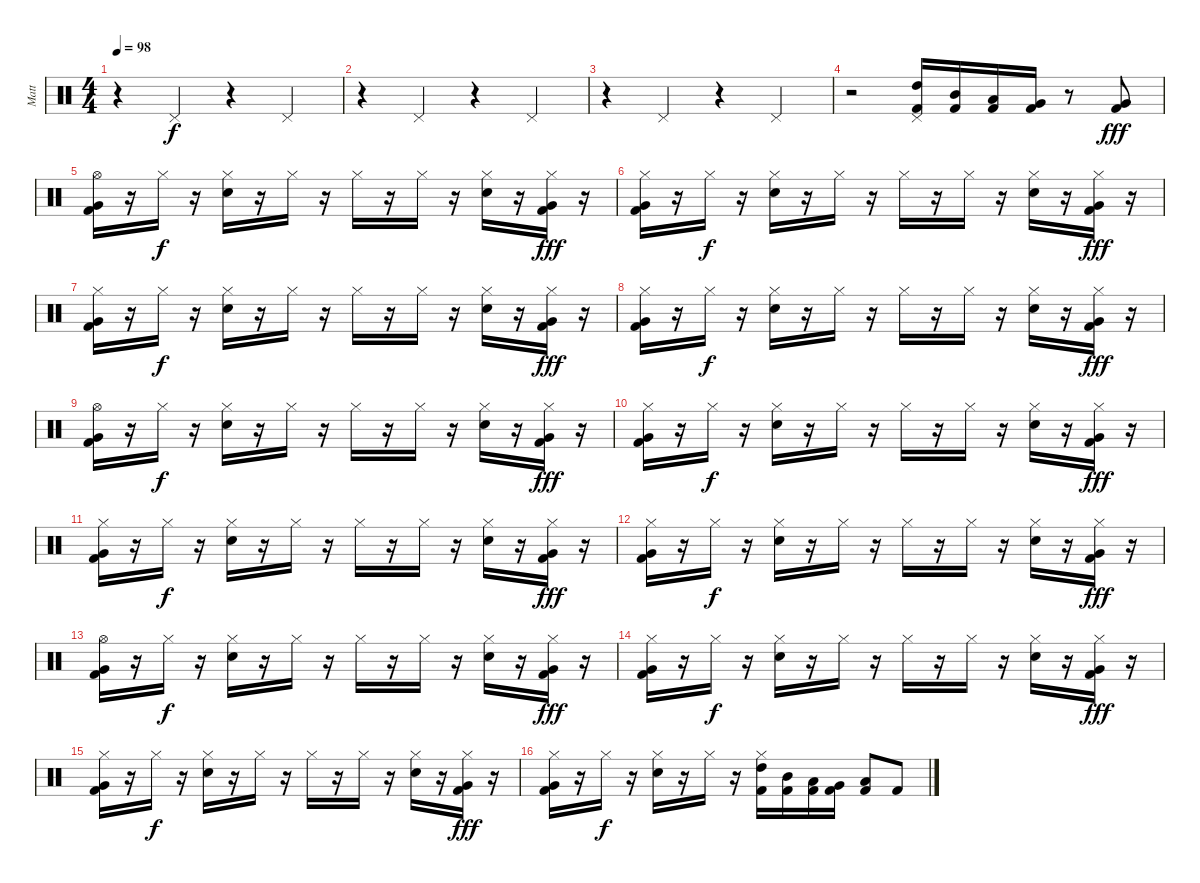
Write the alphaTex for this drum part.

\track ("Matt" "Matt") {instrument percussion}
\staff {score}
\articulation defaults
\ts (4 4)
\tempo 98
\clef neutral
\ks c
r.4{dy f} "Pedal Hi-Hat (hit)".4 r.4 "Pedal Hi-Hat (hit)".4 |
r.4 "Pedal Hi-Hat (hit)".4 r.4 "Pedal Hi-Hat (hit)".4 |
r.4 "Pedal Hi-Hat (hit)".4 r.4 "Pedal Hi-Hat (hit)".4 |
r.2 ("Pedal Hi-Hat (hit)" "High Tom (hit)" "Kick (hit) 2").16 ("Mid Tom (hit)" "Kick (hit) 2").16 ("Low Tom (hit)" "Kick (hit) 2").16 ("Very Low Tom (hit)" "Kick (hit) 2").16 r.8 ("Very Low Tom (hit)" "Kick (hit) 2").8{dy fff} |
("Hi-Hat (open)" "Very Low Tom (hit)" "Kick (hit) 2").16 r.16 "Hi-Hat (closed)".16{dy f} r.16 ("Hi-Hat (closed)" "Snare (hit) 2").16 r.16 "Hi-Hat (closed)".16 r.16 "Hi-Hat (closed)".16 r.16 "Hi-Hat (closed)".16 r.16 ("Hi-Hat (closed)" "Snare (hit) 2").16 r.16 ("Hi-Hat (closed)" "Very Low Tom (hit)" "Kick (hit) 2").16{dy fff} r.16 |
("Hi-Hat (closed)" "Very Low Tom (hit)" "Kick (hit) 2").16 r.16 "Hi-Hat (closed)".16{dy f} r.16 ("Hi-Hat (closed)" "Snare (hit) 2").16 r.16 "Hi-Hat (closed)".16 r.16 "Hi-Hat (closed)".16 r.16 "Hi-Hat (closed)".16 r.16 ("Hi-Hat (closed)" "Snare (hit) 2").16 r.16 ("Hi-Hat (closed)" "Very Low Tom (hit)" "Kick (hit) 2").16{dy fff} r.16 |
("Hi-Hat (closed)" "Very Low Tom (hit)" "Kick (hit) 2").16 r.16 "Hi-Hat (closed)".16{dy f} r.16 ("Hi-Hat (closed)" "Snare (hit) 2").16 r.16 "Hi-Hat (closed)".16 r.16 "Hi-Hat (closed)".16 r.16 "Hi-Hat (closed)".16 r.16 ("Hi-Hat (closed)" "Snare (hit) 2").16 r.16 ("Hi-Hat (closed)" "Very Low Tom (hit)" "Kick (hit) 2").16{dy fff} r.16 |
("Hi-Hat (closed)" "Very Low Tom (hit)" "Kick (hit) 2").16 r.16 "Hi-Hat (closed)".16{dy f} r.16 ("Hi-Hat (closed)" "Snare (hit) 2").16 r.16 "Hi-Hat (closed)".16 r.16 "Hi-Hat (closed)".16 r.16 "Hi-Hat (closed)".16 r.16 ("Hi-Hat (closed)" "Snare (hit) 2").16 r.16 ("Hi-Hat (closed)" "Very Low Tom (hit)" "Kick (hit) 2").16{dy fff} r.16 |
("Hi-Hat (open)" "Very Low Tom (hit)" "Kick (hit) 2").16 r.16 "Hi-Hat (closed)".16{dy f} r.16 ("Hi-Hat (closed)" "Snare (hit) 2").16 r.16 "Hi-Hat (closed)".16 r.16 "Hi-Hat (closed)".16 r.16 "Hi-Hat (closed)".16 r.16 ("Hi-Hat (closed)" "Snare (hit) 2").16 r.16 ("Hi-Hat (closed)" "Very Low Tom (hit)" "Kick (hit) 2").16{dy fff} r.16 |
("Hi-Hat (closed)" "Very Low Tom (hit)" "Kick (hit) 2").16 r.16 "Hi-Hat (closed)".16{dy f} r.16 ("Hi-Hat (closed)" "Snare (hit) 2").16 r.16 "Hi-Hat (closed)".16 r.16 "Hi-Hat (closed)".16 r.16 "Hi-Hat (closed)".16 r.16 ("Hi-Hat (closed)" "Snare (hit) 2").16 r.16 ("Hi-Hat (closed)" "Very Low Tom (hit)" "Kick (hit) 2").16{dy fff} r.16 |
("Hi-Hat (closed)" "Very Low Tom (hit)" "Kick (hit) 2").16 r.16 "Hi-Hat (closed)".16{dy f} r.16 ("Hi-Hat (closed)" "Snare (hit) 2").16 r.16 "Hi-Hat (closed)".16 r.16 "Hi-Hat (closed)".16 r.16 "Hi-Hat (closed)".16 r.16 ("Hi-Hat (closed)" "Snare (hit) 2").16 r.16 ("Hi-Hat (closed)" "Very Low Tom (hit)" "Kick (hit) 2").16{dy fff} r.16 |
("Hi-Hat (closed)" "Very Low Tom (hit)" "Kick (hit) 2").16 r.16 "Hi-Hat (closed)".16{dy f} r.16 ("Hi-Hat (closed)" "Snare (hit) 2").16 r.16 "Hi-Hat (closed)".16 r.16 "Hi-Hat (closed)".16 r.16 "Hi-Hat (closed)".16 r.16 ("Hi-Hat (closed)" "Snare (hit) 2").16 r.16 ("Hi-Hat (closed)" "Very Low Tom (hit)" "Kick (hit) 2").16{dy fff} r.16 |
("Hi-Hat (open)" "Very Low Tom (hit)" "Kick (hit) 2").16 r.16 "Hi-Hat (closed)".16{dy f} r.16 ("Hi-Hat (closed)" "Snare (hit) 2").16 r.16 "Hi-Hat (closed)".16 r.16 "Hi-Hat (closed)".16 r.16 "Hi-Hat (closed)".16 r.16 ("Hi-Hat (closed)" "Snare (hit) 2").16 r.16 ("Hi-Hat (closed)" "Very Low Tom (hit)" "Kick (hit) 2").16{dy fff} r.16 |
("Hi-Hat (closed)" "Very Low Tom (hit)" "Kick (hit) 2").16 r.16 "Hi-Hat (closed)".16{dy f} r.16 ("Hi-Hat (closed)" "Snare (hit) 2").16 r.16 "Hi-Hat (closed)".16 r.16 "Hi-Hat (closed)".16 r.16 "Hi-Hat (closed)".16 r.16 ("Hi-Hat (closed)" "Snare (hit) 2").16 r.16 ("Hi-Hat (closed)" "Very Low Tom (hit)" "Kick (hit) 2").16{dy fff} r.16 |
("Hi-Hat (closed)" "Very Low Tom (hit)" "Kick (hit) 2").16 r.16 "Hi-Hat (closed)".16{dy f} r.16 ("Hi-Hat (closed)" "Snare (hit) 2").16 r.16 "Hi-Hat (closed)".16 r.16 "Hi-Hat (closed)".16 r.16 "Hi-Hat (closed)".16 r.16 ("Hi-Hat (closed)" "Snare (hit) 2").16 r.16 ("Hi-Hat (closed)" "Very Low Tom (hit)" "Kick (hit) 2").16{dy fff} r.16 |
("Hi-Hat (closed)" "Very Low Tom (hit)" "Kick (hit) 2").16 r.16 "Hi-Hat (closed)".16{dy f} r.16 ("Hi-Hat (closed)" "Snare (hit) 2").16 r.16 "Hi-Hat (closed)".16 r.16 ("Hi-Hat (closed)" "High Tom (hit)" "Kick (hit) 2").16 ("Mid Tom (hit)" "Kick (hit) 2").16 ("Low Tom (hit)" "Kick (hit) 2").16 ("Very Low Tom (hit)" "Kick (hit) 2").16 ("Low Floor Tom (hit)" "Kick (hit) 2").8 "Kick (hit) 2".8
